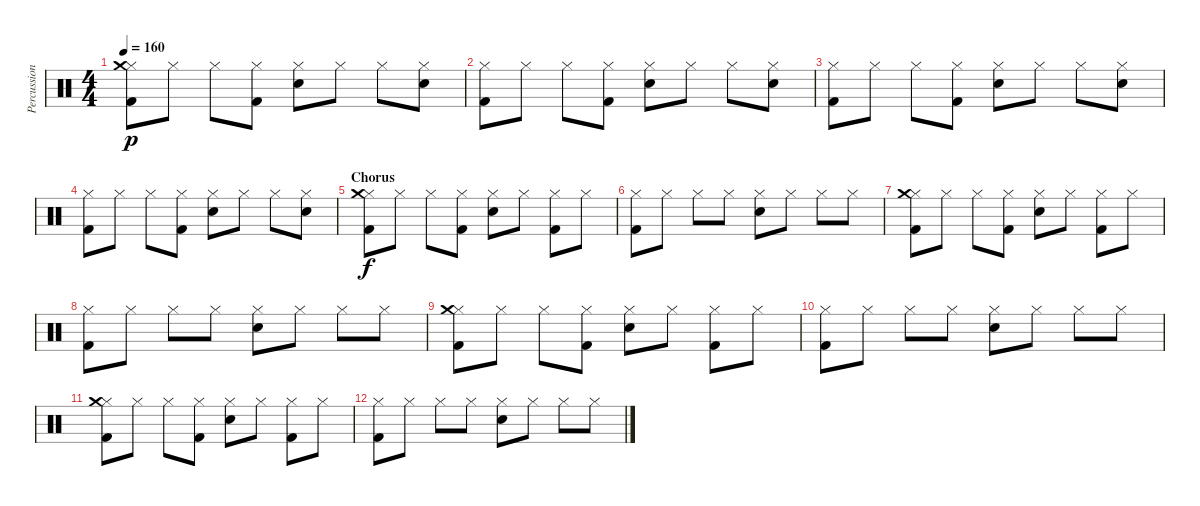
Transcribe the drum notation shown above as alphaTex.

\track ("Percussions" "Percussion") {instrument percussion}
\staff {score}
\articulation defaults
\ts (4 4)
\tempo 160
\clef neutral
\ks c
("Hi-Hat (closed)" "Kick (hit) 2" "Crash medium (hit)").8{dy p} "Hi-Hat (closed)".8 "Hi-Hat (closed)".8 ("Hi-Hat (closed)" "Kick (hit) 2").8 ("Hi-Hat (closed)" "Electric Snare (hit)").8 "Hi-Hat (closed)".8 "Hi-Hat (closed)".8 ("Hi-Hat (closed)" "Electric Snare (hit)").8 |
("Hi-Hat (closed)" "Kick (hit) 2").8 "Hi-Hat (closed)".8 "Hi-Hat (closed)".8 ("Hi-Hat (closed)" "Kick (hit) 2").8 ("Hi-Hat (closed)" "Electric Snare (hit)").8 "Hi-Hat (closed)".8 "Hi-Hat (closed)".8 ("Hi-Hat (closed)" "Electric Snare (hit)").8 |
("Hi-Hat (closed)" "Kick (hit) 2").8 "Hi-Hat (closed)".8 "Hi-Hat (closed)".8 ("Hi-Hat (closed)" "Kick (hit) 2").8 ("Hi-Hat (closed)" "Electric Snare (hit)").8 "Hi-Hat (closed)".8 "Hi-Hat (closed)".8 ("Hi-Hat (closed)" "Electric Snare (hit)").8 |
("Hi-Hat (closed)" "Kick (hit) 2").8 "Hi-Hat (closed)".8 "Hi-Hat (closed)".8 ("Hi-Hat (closed)" "Kick (hit) 2").8 ("Hi-Hat (closed)" "Electric Snare (hit)").8 "Hi-Hat (closed)".8 "Hi-Hat (closed)".8 ("Hi-Hat (closed)" "Electric Snare (hit)").8 |
\section ("" "Chorus")
("Hi-Hat (closed)" "Kick (hit) 2" "Crash medium (hit)").8{dy f} "Hi-Hat (closed)".8 "Hi-Hat (closed)".8 ("Hi-Hat (closed)" "Kick (hit) 2").8 ("Hi-Hat (closed)" "Electric Snare (hit)").8 "Hi-Hat (closed)".8 ("Hi-Hat (closed)" "Kick (hit) 2").8 "Hi-Hat (closed)".8 |
("Hi-Hat (closed)" "Kick (hit) 2").8 "Hi-Hat (closed)".8 "Hi-Hat (closed)".8 "Hi-Hat (closed)".8 ("Hi-Hat (closed)" "Electric Snare (hit)").8 "Hi-Hat (closed)".8 "Hi-Hat (closed)".8 "Hi-Hat (closed)".8 |
("Hi-Hat (closed)" "Kick (hit) 2" "Crash medium (hit)").8 "Hi-Hat (closed)".8 "Hi-Hat (closed)".8 ("Hi-Hat (closed)" "Kick (hit) 2").8 ("Hi-Hat (closed)" "Electric Snare (hit)").8 "Hi-Hat (closed)".8 ("Hi-Hat (closed)" "Kick (hit) 2").8 "Hi-Hat (closed)".8 |
("Hi-Hat (closed)" "Kick (hit) 2").8 "Hi-Hat (closed)".8 "Hi-Hat (closed)".8 "Hi-Hat (closed)".8 ("Hi-Hat (closed)" "Electric Snare (hit)").8 "Hi-Hat (closed)".8 "Hi-Hat (closed)".8 "Hi-Hat (closed)".8 |
("Hi-Hat (closed)" "Kick (hit) 2" "Crash medium (hit)").8 "Hi-Hat (closed)".8 "Hi-Hat (closed)".8 ("Hi-Hat (closed)" "Kick (hit) 2").8 ("Hi-Hat (closed)" "Electric Snare (hit)").8 "Hi-Hat (closed)".8 ("Hi-Hat (closed)" "Kick (hit) 2").8 "Hi-Hat (closed)".8 |
("Hi-Hat (closed)" "Kick (hit) 2").8 "Hi-Hat (closed)".8 "Hi-Hat (closed)".8 "Hi-Hat (closed)".8 ("Hi-Hat (closed)" "Electric Snare (hit)").8 "Hi-Hat (closed)".8 "Hi-Hat (closed)".8 "Hi-Hat (closed)".8 |
("Hi-Hat (closed)" "Kick (hit) 2" "Crash medium (hit)").8 "Hi-Hat (closed)".8 "Hi-Hat (closed)".8 ("Hi-Hat (closed)" "Kick (hit) 2").8 ("Hi-Hat (closed)" "Electric Snare (hit)").8 "Hi-Hat (closed)".8 ("Hi-Hat (closed)" "Kick (hit) 2").8 "Hi-Hat (closed)".8 |
("Hi-Hat (closed)" "Kick (hit) 2").8 "Hi-Hat (closed)".8 "Hi-Hat (closed)".8 "Hi-Hat (closed)".8 ("Hi-Hat (closed)" "Electric Snare (hit)").8 "Hi-Hat (closed)".8 "Hi-Hat (closed)".8 "Hi-Hat (closed)".8
